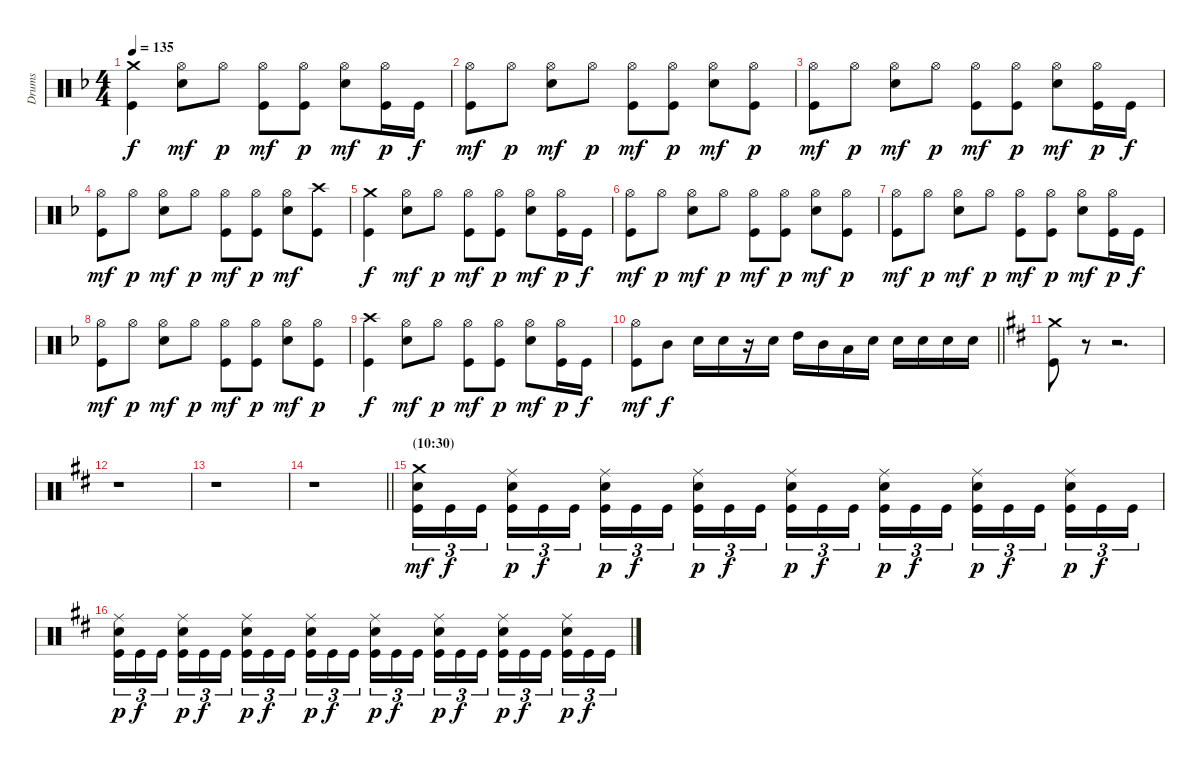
\track ("Drums" "Drums") {instrument percussion}
\staff {score}
\articulation defaults
\ts (4 4)
\tempo 135
\clef neutral
\ks dminor
("Crash medium (hit)" "Kick (hit)").4{dy f} ("Hi-Hat (open)" "Snare (hit) 2").8{dy mf} "Hi-Hat (open)".8{dy p} ("Hi-Hat (open)" "Kick (hit)").8{dy mf} ("Hi-Hat (open)" "Kick (hit)").8{dy p} ("Hi-Hat (open)" "Snare (hit) 2").8{dy mf} ("Hi-Hat (open)" "Kick (hit)").16{dy p} "Kick (hit)".16{dy f} |
("Hi-Hat (open)" "Kick (hit)").8{dy mf} "Hi-Hat (open)".8{dy p} ("Hi-Hat (open)" "Snare (hit) 2").8{dy mf} "Hi-Hat (open)".8{dy p} ("Hi-Hat (open)" "Kick (hit)").8{dy mf} ("Hi-Hat (open)" "Kick (hit)").8{dy p} ("Hi-Hat (open)" "Snare (hit) 2").8{dy mf} ("Hi-Hat (open)" "Kick (hit)").8{dy p} |
("Hi-Hat (open)" "Kick (hit)").8{dy mf} "Hi-Hat (open)".8{dy p} ("Hi-Hat (open)" "Snare (hit) 2").8{dy mf} "Hi-Hat (open)".8{dy p} ("Hi-Hat (open)" "Kick (hit)").8{dy mf} ("Hi-Hat (open)" "Kick (hit)").8{dy p} ("Hi-Hat (open)" "Snare (hit) 2").8{dy mf} ("Hi-Hat (open)" "Kick (hit)").16{dy p} "Kick (hit)".16{dy f} |
("Hi-Hat (open)" "Kick (hit)").8{dy mf} "Hi-Hat (open)".8{dy p} ("Hi-Hat (open)" "Snare (hit) 2").8{dy mf} "Hi-Hat (open)".8{dy p} ("Hi-Hat (open)" "Kick (hit)").8{dy mf} ("Hi-Hat (open)" "Kick (hit)").8{dy p} ("Hi-Hat (open)" "Snare (hit) 2").8{dy mf} ("Crash high (hit)" "Kick (hit)").8 |
("Crash medium (hit)" "Kick (hit)").4{dy f} ("Hi-Hat (open)" "Snare (hit) 2").8{dy mf} "Hi-Hat (open)".8{dy p} ("Hi-Hat (open)" "Kick (hit)").8{dy mf} ("Hi-Hat (open)" "Kick (hit)").8{dy p} ("Hi-Hat (open)" "Snare (hit) 2").8{dy mf} ("Hi-Hat (open)" "Kick (hit)").16{dy p} "Kick (hit)".16{dy f} |
("Hi-Hat (open)" "Kick (hit)").8{dy mf} "Hi-Hat (open)".8{dy p} ("Hi-Hat (open)" "Snare (hit) 2").8{dy mf} "Hi-Hat (open)".8{dy p} ("Hi-Hat (open)" "Kick (hit)").8{dy mf} ("Hi-Hat (open)" "Kick (hit)").8{dy p} ("Hi-Hat (open)" "Snare (hit) 2").8{dy mf} ("Hi-Hat (open)" "Kick (hit)").8{dy p} |
("Hi-Hat (open)" "Kick (hit)").8{dy mf} "Hi-Hat (open)".8{dy p} ("Hi-Hat (open)" "Snare (hit) 2").8{dy mf} "Hi-Hat (open)".8{dy p} ("Hi-Hat (open)" "Kick (hit)").8{dy mf} ("Hi-Hat (open)" "Kick (hit)").8{dy p} ("Hi-Hat (open)" "Snare (hit) 2").8{dy mf} ("Hi-Hat (open)" "Kick (hit)").16{dy p} "Kick (hit)".16{dy f} |
("Hi-Hat (open)" "Kick (hit)").8{dy mf} "Hi-Hat (open)".8{dy p} ("Hi-Hat (open)" "Snare (hit) 2").8{dy mf} "Hi-Hat (open)".8{dy p} ("Hi-Hat (open)" "Kick (hit)").8{dy mf} ("Hi-Hat (open)" "Kick (hit)").8{dy p} ("Hi-Hat (open)" "Snare (hit) 2").8{dy mf} ("Hi-Hat (open)" "Kick (hit)").8{dy p} |
("Crash high (hit)" "Kick (hit)").4{dy f} ("Hi-Hat (open)" "Snare (hit) 2").8{dy mf} "Hi-Hat (open)".8{dy p} ("Hi-Hat (open)" "Kick (hit)").8{dy mf} ("Hi-Hat (open)" "Kick (hit)").8{dy p} ("Hi-Hat (open)" "Snare (hit) 2").8{dy mf} ("Hi-Hat (open)" "Kick (hit)").16{dy p} "Kick (hit)".16{dy f} |
\barLineRight lightlight
("Hi-Hat (open)" "Kick (hit)").8{dy mf} "Mid Tom (hit)".8{dy f} "Snare (hit) 2".16 "Snare (hit) 2".16 r.16 "Snare (hit) 2".16 "High Tom (hit)".16 "Mid Tom (hit)".16 "Low Tom (hit)".16 "Snare (hit) 2".16 "Snare (hit) 2".16 "Snare (hit) 2".16 "Snare (hit) 2".16 "Snare (hit) 2".16 |
\ks bminor
("Crash medium (hit)" "Kick (hit)").8 r.8 r.2{d} |
r.1 |
r.1 |
\barLineRight lightlight
r.1 |
\section ("" "(10:30)")
("Crash medium (hit)" "Snare (hit) 2" "Kick (hit)").16{tu (3 2) dy mf} "Kick (hit)".16{tu (3 2) dy f} "Kick (hit)".16{tu (3 2) beam splitsecondary} ("Ride (middle)" "Snare (hit) 2" "Kick (hit)").16{tu (3 2) dy p} "Kick (hit)".16{tu (3 2) dy f} "Kick (hit)".16{tu (3 2)} ("Ride (middle)" "Snare (hit) 2" "Kick (hit)").16{tu (3 2) dy p} "Kick (hit)".16{tu (3 2) dy f} "Kick (hit)".16{tu (3 2) beam splitsecondary} ("Ride (middle)" "Snare (hit) 2" "Kick (hit)").16{tu (3 2) dy p} "Kick (hit)".16{tu (3 2) dy f} "Kick (hit)".16{tu (3 2)} ("Ride (middle)" "Snare (hit) 2" "Kick (hit)").16{tu (3 2) dy p} "Kick (hit)".16{tu (3 2) dy f} "Kick (hit)".16{tu (3 2) beam splitsecondary} ("Ride (middle)" "Snare (hit) 2" "Kick (hit)").16{tu (3 2) dy p} "Kick (hit)".16{tu (3 2) dy f} "Kick (hit)".16{tu (3 2)} ("Ride (middle)" "Snare (hit) 2" "Kick (hit)").16{tu (3 2) dy p} "Kick (hit)".16{tu (3 2) dy f} "Kick (hit)".16{tu (3 2) beam splitsecondary} ("Ride (middle)" "Snare (hit) 2" "Kick (hit)").16{tu (3 2) dy p} "Kick (hit)".16{tu (3 2) dy f} "Kick (hit)".16{tu (3 2)} |
("Ride (middle)" "Snare (hit) 2" "Kick (hit)").16{tu (3 2) dy p} "Kick (hit)".16{tu (3 2) dy f} "Kick (hit)".16{tu (3 2) beam splitsecondary} ("Ride (middle)" "Snare (hit) 2" "Kick (hit)").16{tu (3 2) dy p} "Kick (hit)".16{tu (3 2) dy f} "Kick (hit)".16{tu (3 2)} ("Ride (middle)" "Snare (hit) 2" "Kick (hit)").16{tu (3 2) dy p} "Kick (hit)".16{tu (3 2) dy f} "Kick (hit)".16{tu (3 2) beam splitsecondary} ("Ride (middle)" "Snare (hit) 2" "Kick (hit)").16{tu (3 2) dy p} "Kick (hit)".16{tu (3 2) dy f} "Kick (hit)".16{tu (3 2)} ("Ride (middle)" "Snare (hit) 2" "Kick (hit)").16{tu (3 2) dy p} "Kick (hit)".16{tu (3 2) dy f} "Kick (hit)".16{tu (3 2) beam splitsecondary} ("Ride (middle)" "Snare (hit) 2" "Kick (hit)").16{tu (3 2) dy p} "Kick (hit)".16{tu (3 2) dy f} "Kick (hit)".16{tu (3 2)} ("Ride (middle)" "Snare (hit) 2" "Kick (hit)").16{tu (3 2) dy p} "Kick (hit)".16{tu (3 2) dy f} "Kick (hit)".16{tu (3 2) beam splitsecondary} ("Ride (middle)" "Snare (hit) 2" "Kick (hit)").16{tu (3 2) dy p} "Kick (hit)".16{tu (3 2) dy f} "Kick (hit)".16{tu (3 2)}
